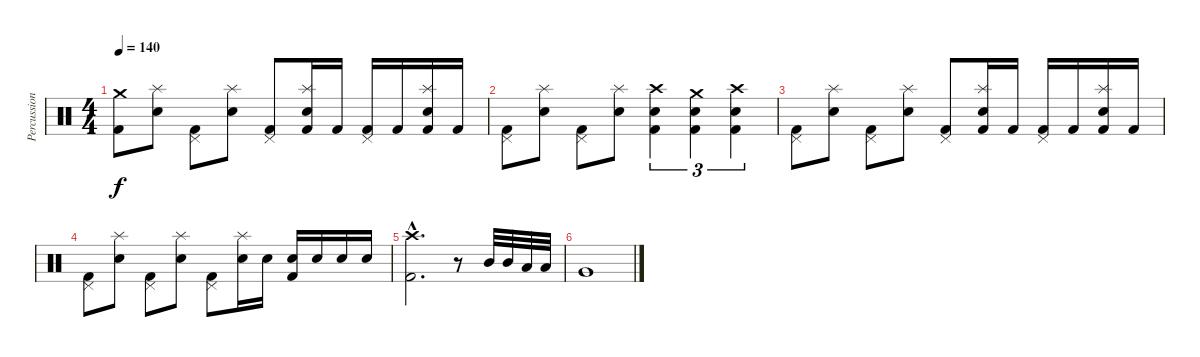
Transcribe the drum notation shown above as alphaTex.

\track ("Percussion" "Percussion") {instrument percussion}
\staff {score}
\articulation defaults
\ts (4 4)
\tempo 140
\clef neutral
\ks c
("Crash medium (hit)" "Kick (hit) 2").8{dy f} ("Splash (hit)" "Snare (hit) 2").8 ("Pedal Hi-Hat (hit)" "Kick (hit) 2").8 ("Splash (hit)" "Snare (hit) 2").8 ("Pedal Hi-Hat (hit)" "Kick (hit) 2").8 ("Splash (hit)" "Snare (hit) 2" "Kick (hit) 2").16 "Kick (hit) 2".16 ("Pedal Hi-Hat (hit)" "Kick (hit) 2").16 "Kick (hit) 2".16 ("Splash (hit)" "Snare (hit) 2" "Kick (hit) 2").16 "Kick (hit) 2".16 |
("Pedal Hi-Hat (hit)" "Kick (hit) 2").8 ("Splash (hit)" "Snare (hit) 2").8 ("Pedal Hi-Hat (hit)" "Kick (hit) 2").8 ("Splash (hit)" "Snare (hit) 2").8 ("Crash high (hit)" "Snare (hit) 2" "Kick (hit) 2").4{tu (3 2)} ("Crash medium (hit)" "Snare (hit) 2" "Kick (hit) 2").4{tu (3 2)} ("Crash high (hit)" "Snare (hit) 2" "Kick (hit) 2").4{tu (3 2)} |
("Pedal Hi-Hat (hit)" "Kick (hit) 2").8 ("Splash (hit)" "Snare (hit) 2").8 ("Pedal Hi-Hat (hit)" "Kick (hit) 2").8 ("Splash (hit)" "Snare (hit) 2").8 ("Pedal Hi-Hat (hit)" "Kick (hit) 2").8 ("Splash (hit)" "Snare (hit) 2" "Kick (hit) 2").16 "Kick (hit) 2".16 ("Pedal Hi-Hat (hit)" "Kick (hit) 2").16 "Kick (hit) 2".16 ("Splash (hit)" "Snare (hit) 2" "Kick (hit) 2").16 "Kick (hit) 2".16 |
("Pedal Hi-Hat (hit)" "Kick (hit) 2").8 ("Splash (hit)" "Snare (hit) 2").8 ("Pedal Hi-Hat (hit)" "Kick (hit) 2").8 ("Splash (hit)" "Snare (hit) 2").8 ("Pedal Hi-Hat (hit)" "Kick (hit) 2").8 ("Splash (hit)" "Snare (hit) 2").16 "Snare (hit) 2".16 ("Snare (hit) 2" "Kick (hit) 2").16 "Snare (hit) 2".16 "Snare (hit) 2".16 "Snare (hit) 2".16 |
("Crash high (hit)"{hac} "Kick (hit) 2"{hac}).2{d} r.8 "Mid Tom (hit)".32 "Mid Tom (hit)".32 "Low Tom (hit)".32 "Low Tom (hit)".32 |
"Very Low Tom (hit)".1
